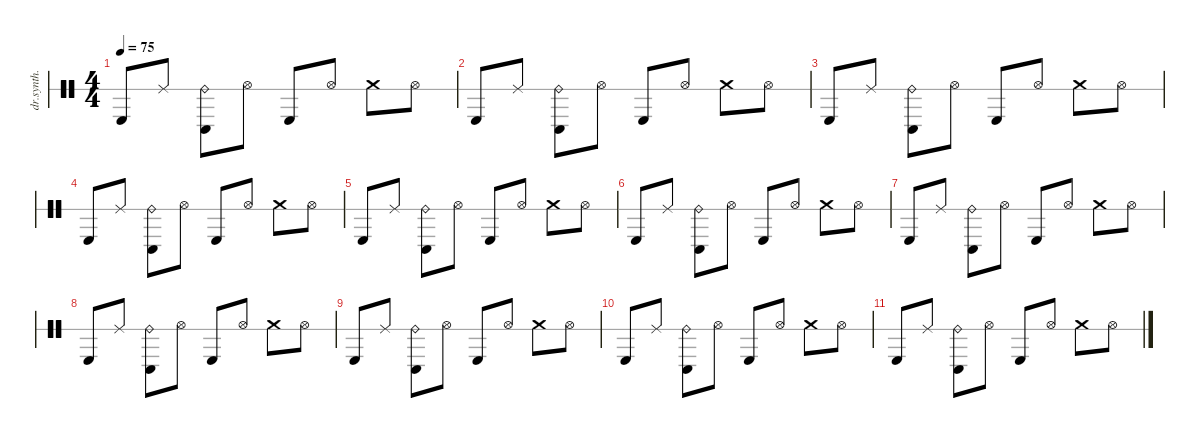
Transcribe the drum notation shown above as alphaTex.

\defaultSystemsLayout 4
\hideDynamics
\bracketExtendMode nobrackets
\otherSystemsTrackNameOrientation horizontal
\track ("Synth Drum" "dr.synth.") {instrument percussion}
\staff {score 1}
\articulation defaults
\ts (4 4)
\tempo 75
\clef neutral
\ks c "Kick (hit) 2".8{dy mf beam Up} "Ride (middle)".8{dy f beam Up}
("Ride (bell)" "Timbale high (hit)").8{dy mp beam Down} "Hi-Hat (open)".8{dy mf beam Down} "Kick (hit) 2".8{beam Up} "Hi-Hat (open)".8{beam Up} "Crash medium (hit)".8{beam Down} "Hi-Hat (open)".8{beam Down} |
"Kick (hit) 2".8{beam Up} "Ride (middle)".8{dy f beam Up} ("Ride (bell)" "Timbale high (hit)").8{dy mp beam Down} "Hi-Hat (open)".8{dy mf beam Down} "Kick (hit) 2".8{beam Up} "Hi-Hat (open)".8{beam Up} "Crash medium (hit)".8{beam Down} "Hi-Hat (open)".8{beam Down} |
"Kick (hit) 2".8{beam Up} "Ride (middle)".8{dy f beam Up} ("Ride (bell)" "Timbale high (hit)").8{dy mp beam Down} "Hi-Hat (open)".8{dy mf beam Down} "Kick (hit) 2".8{beam Up} "Hi-Hat (open)".8{beam Up} "Crash medium (hit)".8{beam Down} "Hi-Hat (open)".8{beam Down} |
"Kick (hit) 2".8{beam Up} "Ride (middle)".8{dy f beam Up} ("Ride (bell)" "Timbale high (hit)").8{dy mp beam Down} "Hi-Hat (open)".8{dy mf beam Down} "Kick (hit) 2".8{beam Up} "Hi-Hat (open)".8{beam Up} "Crash medium (hit)".8{beam Down} "Hi-Hat (open)".8{beam Down} |
"Kick (hit) 2".8{beam Up} "Ride (middle)".8{dy f beam Up} ("Ride (bell)" "Timbale high (hit)").8{dy mp beam Down} "Hi-Hat (open)".8{dy mf beam Down} "Kick (hit) 2".8{beam Up} "Hi-Hat (open)".8{beam Up} "Crash medium (hit)".8{beam Down} "Hi-Hat (open)".8{beam Down} |
"Kick (hit) 2".8{beam Up} "Ride (middle)".8{dy f beam Up} ("Ride (bell)" "Timbale high (hit)").8{dy mp beam Down} "Hi-Hat (open)".8{dy mf beam Down} "Kick (hit) 2".8{beam Up} "Hi-Hat (open)".8{beam Up} "Crash medium (hit)".8{beam Down} "Hi-Hat (open)".8{beam Down} |
"Kick (hit) 2".8{beam Up} "Ride (middle)".8{dy f beam Up} ("Ride (bell)" "Timbale high (hit)").8{dy mp beam Down} "Hi-Hat (open)".8{dy mf beam Down} "Kick (hit) 2".8{beam Up} "Hi-Hat (open)".8{beam Up} "Crash medium (hit)".8{beam Down} "Hi-Hat (open)".8{beam Down} |
"Kick (hit) 2".8{beam Up} "Ride (middle)".8{dy f beam Up} ("Ride (bell)" "Timbale high (hit)").8{dy mp beam Down} "Hi-Hat (open)".8{dy mf beam Down} "Kick (hit) 2".8{beam Up} "Hi-Hat (open)".8{beam Up} "Crash medium (hit)".8{beam Down} "Hi-Hat (open)".8{beam Down} |
"Kick (hit) 2".8{beam Up} "Ride (middle)".8{dy f beam Up} ("Ride (bell)" "Timbale high (hit)").8{dy mp beam Down} "Hi-Hat (open)".8{dy mf beam Down} "Kick (hit) 2".8{beam Up} "Hi-Hat (open)".8{beam Up} "Crash medium (hit)".8{beam Down} "Hi-Hat (open)".8{beam Down} |
"Kick (hit) 2".8{beam Up} "Ride (middle)".8{dy f beam Up} ("Ride (bell)" "Timbale high (hit)").8{dy mp beam Down} "Hi-Hat (open)".8{dy mf beam Down} "Kick (hit) 2".8{beam Up} "Hi-Hat (open)".8{beam Up} "Crash medium (hit)".8{beam Down} "Hi-Hat (open)".8{beam Down} |
"Kick (hit) 2".8{beam Up} "Ride (middle)".8{dy f beam Up} ("Ride (bell)" "Timbale high (hit)").8{dy mp beam Down} "Hi-Hat (open)".8{dy mf beam Down} "Kick (hit) 2".8{beam Up} "Hi-Hat (open)".8{beam Up} "Crash medium (hit)".8{beam Down} "Hi-Hat (open)".8{beam Down}
